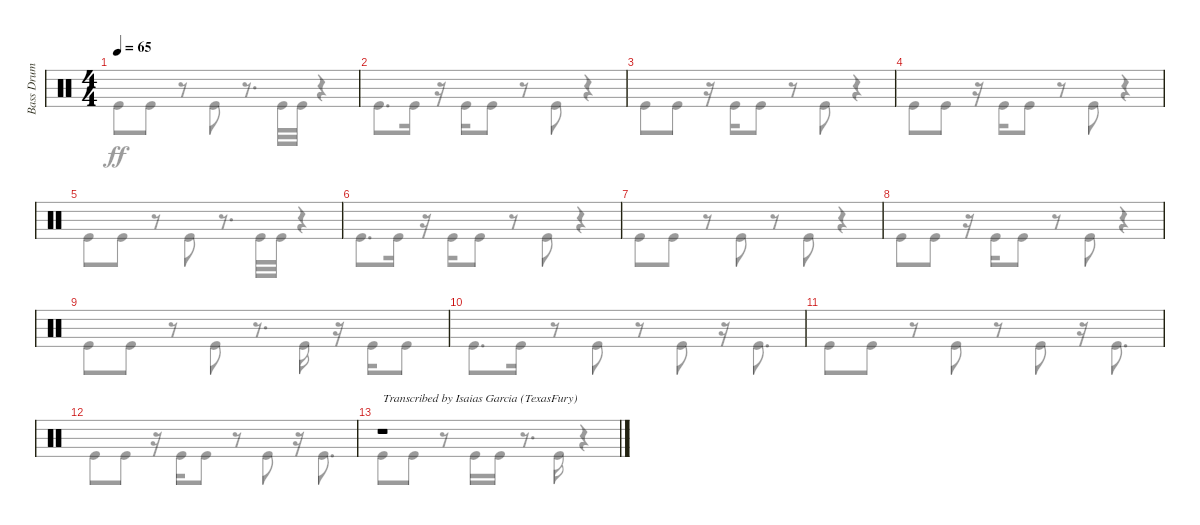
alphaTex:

\track ("Bass Drum" "Bass Drum") {instrument percussion}
\staff {score}
\articulation defaults
\voice
\ts (4 4)
\tempo 65
\clef neutral
\ks c
|
|
|
|
|
|
|
|
|
|
|
|
r.1{txt "Transcribed by Isaias Garcia (TexasFury)"}
\voice
\clef neutral
\ottava regular
\simile none
\ks c "Kick (hit)".8{dy ff} "Kick (hit)".8
r.8 "Kick (hit)".8 r.8{d} "Kick (hit)".32 "Kick (hit)".32 r.4 |
"Kick (hit)".8{d} "Kick (hit)".16 r.16 "Kick (hit)".16 "Kick (hit)".8 r.8 "Kick (hit)".8 r.4 |
"Kick (hit)".8 "Kick (hit)".8 r.16 "Kick (hit)".16 "Kick (hit)".8 r.8 "Kick (hit)".8 r.4 |
"Kick (hit)".8 "Kick (hit)".8 r.16 "Kick (hit)".16 "Kick (hit)".8 r.8 "Kick (hit)".8 r.4 |
"Kick (hit)".8 "Kick (hit)".8 r.8 "Kick (hit)".8 r.8{d} "Kick (hit)".32 "Kick (hit)".32 r.4 |
"Kick (hit)".8{d} "Kick (hit)".16 r.16 "Kick (hit)".16 "Kick (hit)".8 r.8 "Kick (hit)".8 r.4 |
"Kick (hit)".8 "Kick (hit)".8 r.8 "Kick (hit)".8 r.8 "Kick (hit)".8 r.4 |
"Kick (hit)".8 "Kick (hit)".8 r.16 "Kick (hit)".16 "Kick (hit)".8 r.8 "Kick (hit)".8 r.4 |
"Kick (hit)".8 "Kick (hit)".8 r.8 "Kick (hit)".8 r.8{d} "Kick (hit)".16 r.16 "Kick (hit)".16 "Kick (hit)".8 |
"Kick (hit)".8{d} "Kick (hit)".16 r.8 "Kick (hit)".8 r.8 "Kick (hit)".8 r.16 "Kick (hit)".8{d} |
"Kick (hit)".8 "Kick (hit)".8 r.8 "Kick (hit)".8 r.8 "Kick (hit)".8 r.16 "Kick (hit)".8{d} |
"Kick (hit)".8 "Kick (hit)".8 r.16 "Kick (hit)".16 "Kick (hit)".8 r.8 "Kick (hit)".8 r.16 "Kick (hit)".8{d} |
"Kick (hit)".8 "Kick (hit)".8 r.8 "Kick (hit)".16 "Kick (hit)".16 r.8{d} "Kick (hit)".16 r.4
